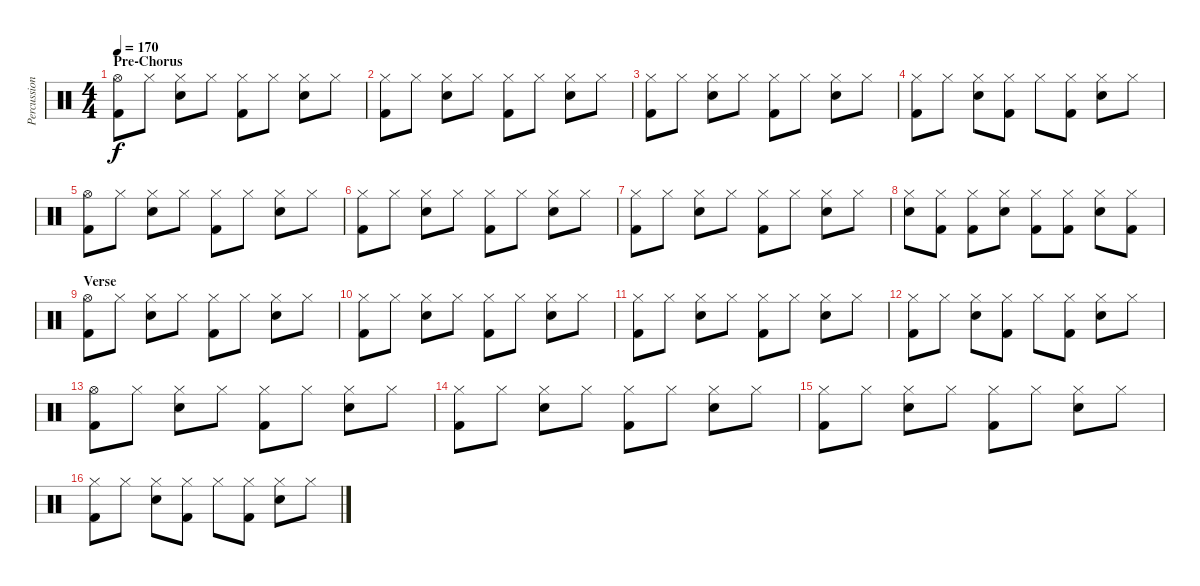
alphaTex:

\track ("Percussions" "Percussion") {instrument percussion}
\staff {score}
\articulation defaults
\ts (4 4)
\section ("" "Pre-Chorus")
\tempo 170
\clef neutral
\ks c
("Hi-Hat (open)" "Kick (hit) 2").8{dy f} "Hi-Hat (closed)".8 ("Hi-Hat (closed)" "Snare (hit) 2").8 "Hi-Hat (closed)".8 ("Hi-Hat (closed)" "Kick (hit) 2").8 "Hi-Hat (closed)".8 ("Hi-Hat (closed)" "Snare (hit) 2").8 "Hi-Hat (closed)".8 |
("Hi-Hat (closed)" "Kick (hit) 2").8 "Hi-Hat (closed)".8 ("Hi-Hat (closed)" "Snare (hit) 2").8 "Hi-Hat (closed)".8 ("Hi-Hat (closed)" "Kick (hit) 2").8 "Hi-Hat (closed)".8 ("Hi-Hat (closed)" "Snare (hit) 2").8 "Hi-Hat (closed)".8 |
("Hi-Hat (closed)" "Kick (hit) 2").8 "Hi-Hat (closed)".8 ("Hi-Hat (closed)" "Snare (hit) 2").8 "Hi-Hat (closed)".8 ("Hi-Hat (closed)" "Kick (hit) 2").8 "Hi-Hat (closed)".8 ("Hi-Hat (closed)" "Snare (hit) 2").8 "Hi-Hat (closed)".8 |
("Hi-Hat (closed)" "Kick (hit) 2").8 "Hi-Hat (closed)".8 ("Hi-Hat (closed)" "Snare (hit) 2").8 ("Hi-Hat (closed)" "Kick (hit) 2").8 "Hi-Hat (closed)".8 ("Hi-Hat (closed)" "Kick (hit) 2").8 ("Hi-Hat (closed)" "Snare (hit) 2").8 "Hi-Hat (closed)".8 |
("Hi-Hat (open)" "Kick (hit) 2").8 "Hi-Hat (closed)".8 ("Hi-Hat (closed)" "Snare (hit) 2").8 "Hi-Hat (closed)".8 ("Hi-Hat (closed)" "Kick (hit) 2").8 "Hi-Hat (closed)".8 ("Hi-Hat (closed)" "Snare (hit) 2").8 "Hi-Hat (closed)".8 |
("Hi-Hat (closed)" "Kick (hit) 2").8 "Hi-Hat (closed)".8 ("Hi-Hat (closed)" "Snare (hit) 2").8 "Hi-Hat (closed)".8 ("Hi-Hat (closed)" "Kick (hit) 2").8 "Hi-Hat (closed)".8 ("Hi-Hat (closed)" "Snare (hit) 2").8 "Hi-Hat (closed)".8 |
("Hi-Hat (closed)" "Kick (hit) 2").8 "Hi-Hat (closed)".8 ("Hi-Hat (closed)" "Snare (hit) 2").8 "Hi-Hat (closed)".8 ("Hi-Hat (closed)" "Kick (hit) 2").8 "Hi-Hat (closed)".8 ("Hi-Hat (closed)" "Snare (hit) 2").8 "Hi-Hat (closed)".8 |
("Hi-Hat (closed)" "Snare (hit) 2").8 ("Hi-Hat (closed)" "Kick (hit) 2").8 ("Hi-Hat (closed)" "Kick (hit) 2").8 ("Hi-Hat (closed)" "Snare (hit) 2").8 ("Hi-Hat (closed)" "Kick (hit) 2").8 ("Hi-Hat (closed)" "Kick (hit) 2").8 ("Hi-Hat (closed)" "Snare (hit) 2").8 ("Hi-Hat (closed)" "Kick (hit) 2").8 |
\section ("" "Verse")
("Hi-Hat (open)" "Kick (hit) 2").8 "Hi-Hat (closed)".8 ("Hi-Hat (closed)" "Snare (hit) 2").8 "Hi-Hat (closed)".8 ("Hi-Hat (closed)" "Kick (hit) 2").8 "Hi-Hat (closed)".8 ("Hi-Hat (closed)" "Snare (hit) 2").8 "Hi-Hat (closed)".8 |
("Hi-Hat (closed)" "Kick (hit) 2").8 "Hi-Hat (closed)".8 ("Hi-Hat (closed)" "Snare (hit) 2").8 "Hi-Hat (closed)".8 ("Hi-Hat (closed)" "Kick (hit) 2").8 "Hi-Hat (closed)".8 ("Hi-Hat (closed)" "Snare (hit) 2").8 "Hi-Hat (closed)".8 |
("Hi-Hat (closed)" "Kick (hit) 2").8 "Hi-Hat (closed)".8 ("Hi-Hat (closed)" "Snare (hit) 2").8 "Hi-Hat (closed)".8 ("Hi-Hat (closed)" "Kick (hit) 2").8 "Hi-Hat (closed)".8 ("Hi-Hat (closed)" "Snare (hit) 2").8 "Hi-Hat (closed)".8 |
("Hi-Hat (closed)" "Kick (hit) 2").8 "Hi-Hat (closed)".8 ("Hi-Hat (closed)" "Snare (hit) 2").8 ("Hi-Hat (closed)" "Kick (hit) 2").8 "Hi-Hat (closed)".8 ("Hi-Hat (closed)" "Kick (hit) 2").8 ("Hi-Hat (closed)" "Snare (hit) 2").8 "Hi-Hat (closed)".8 |
("Hi-Hat (open)" "Kick (hit) 2").8 "Hi-Hat (closed)".8 ("Hi-Hat (closed)" "Snare (hit) 2").8 "Hi-Hat (closed)".8 ("Hi-Hat (closed)" "Kick (hit) 2").8 "Hi-Hat (closed)".8 ("Hi-Hat (closed)" "Snare (hit) 2").8 "Hi-Hat (closed)".8 |
("Hi-Hat (closed)" "Kick (hit) 2").8 "Hi-Hat (closed)".8 ("Hi-Hat (closed)" "Snare (hit) 2").8 "Hi-Hat (closed)".8 ("Hi-Hat (closed)" "Kick (hit) 2").8 "Hi-Hat (closed)".8 ("Hi-Hat (closed)" "Snare (hit) 2").8 "Hi-Hat (closed)".8 |
("Hi-Hat (closed)" "Kick (hit) 2").8 "Hi-Hat (closed)".8 ("Hi-Hat (closed)" "Snare (hit) 2").8 "Hi-Hat (closed)".8 ("Hi-Hat (closed)" "Kick (hit) 2").8 "Hi-Hat (closed)".8 ("Hi-Hat (closed)" "Snare (hit) 2").8 "Hi-Hat (closed)".8 |
("Hi-Hat (closed)" "Kick (hit) 2").8 "Hi-Hat (closed)".8 ("Hi-Hat (closed)" "Snare (hit) 2").8 ("Hi-Hat (closed)" "Kick (hit) 2").8 "Hi-Hat (closed)".8 ("Hi-Hat (closed)" "Kick (hit) 2").8 ("Hi-Hat (closed)" "Snare (hit) 2").8 "Hi-Hat (closed)".8
